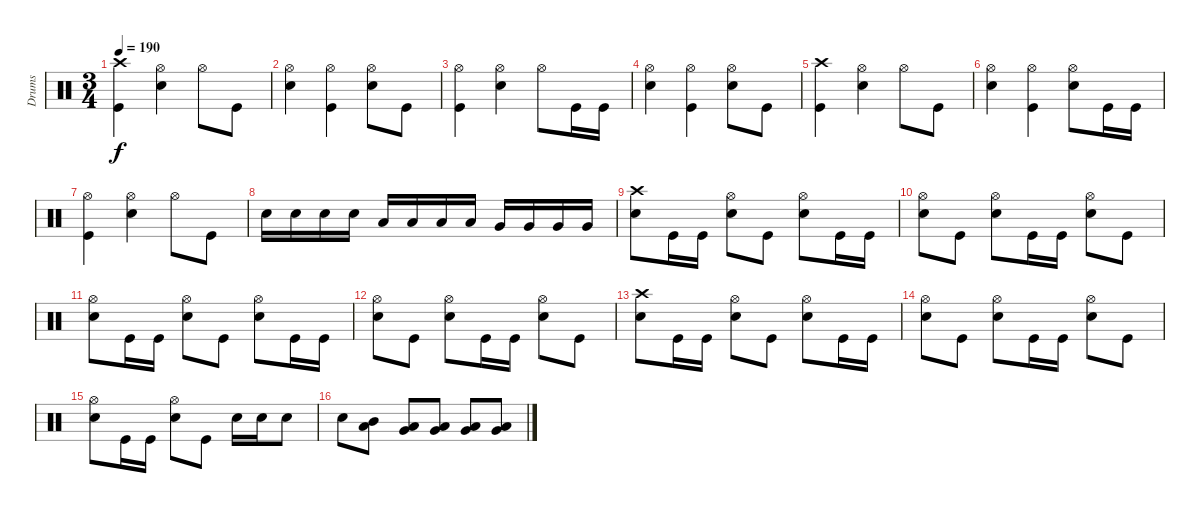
\track ("Drums" "Drums") {instrument percussion}
\staff {score}
\articulation defaults
\ts (3 4)
\tempo 190
\clef neutral
\ks c
("Kick (hit)" "Crash high (hit)").4{dy f} ("Snare (hit) 2" "Hi-Hat (open)").4 "Hi-Hat (open)".8 "Kick (hit)".8 |
("Snare (hit) 2" "Hi-Hat (open)").4 ("Kick (hit)" "Hi-Hat (open)").4 ("Snare (hit) 2" "Hi-Hat (open)").8 "Kick (hit)".8 |
("Kick (hit)" "Hi-Hat (open)").4 ("Snare (hit) 2" "Hi-Hat (open)").4 "Hi-Hat (open)".8 "Kick (hit)".16 "Kick (hit)".16 |
("Snare (hit) 2" "Hi-Hat (open)").4 ("Kick (hit)" "Hi-Hat (open)").4 ("Snare (hit) 2" "Hi-Hat (open)").8 "Kick (hit)".8 |
("Kick (hit)" "Crash high (hit)").4 ("Snare (hit) 2" "Hi-Hat (open)").4 "Hi-Hat (open)".8 "Kick (hit)".8 |
("Snare (hit) 2" "Hi-Hat (open)").4 ("Kick (hit)" "Hi-Hat (open)").4 ("Snare (hit) 2" "Hi-Hat (open)").8 "Kick (hit)".16 "Kick (hit)".16 |
("Kick (hit)" "Hi-Hat (open)").4 ("Snare (hit) 2" "Hi-Hat (open)").4 "Hi-Hat (open)".8 "Kick (hit)".8 |
"Snare (hit) 2".16 "Snare (hit) 2".16 "Snare (hit) 2".16 "Snare (hit) 2".16 "Low Tom (hit)".16 "Low Tom (hit)".16 "Low Tom (hit)".16 "Low Tom (hit)".16 "Very Low Tom (hit)".16 "Very Low Tom (hit)".16 "Very Low Tom (hit)".16 "Very Low Tom (hit)".16 |
("Snare (hit) 2" "Crash high (hit)").8 "Kick (hit)".16 "Kick (hit)".16 ("Snare (hit) 2" "Hi-Hat (open)").8 "Kick (hit)".8 ("Snare (hit) 2" "Hi-Hat (open)").8 "Kick (hit)".16 "Kick (hit)".16 |
("Snare (hit) 2" "Hi-Hat (open)").8 "Kick (hit)".8 ("Snare (hit) 2" "Hi-Hat (open)").8 "Kick (hit)".16 "Kick (hit)".16 ("Snare (hit) 2" "Hi-Hat (open)").8 "Kick (hit)".8 |
("Snare (hit) 2" "Hi-Hat (open)").8 "Kick (hit)".16 "Kick (hit)".16 ("Snare (hit) 2" "Hi-Hat (open)").8 "Kick (hit)".8 ("Snare (hit) 2" "Hi-Hat (open)").8 "Kick (hit)".16 "Kick (hit)".16 |
("Snare (hit) 2" "Hi-Hat (open)").8 "Kick (hit)".8 ("Snare (hit) 2" "Hi-Hat (open)").8 "Kick (hit)".16 "Kick (hit)".16 ("Snare (hit) 2" "Hi-Hat (open)").8 "Kick (hit)".8 |
("Snare (hit) 2" "Crash high (hit)").8 "Kick (hit)".16 "Kick (hit)".16 ("Snare (hit) 2" "Hi-Hat (open)").8 "Kick (hit)".8 ("Snare (hit) 2" "Hi-Hat (open)").8 "Kick (hit)".16 "Kick (hit)".16 |
("Snare (hit) 2" "Hi-Hat (open)").8 "Kick (hit)".8 ("Snare (hit) 2" "Hi-Hat (open)").8 "Kick (hit)".16 "Kick (hit)".16 ("Snare (hit) 2" "Hi-Hat (open)").8 "Kick (hit)".8 |
("Snare (hit) 2" "Hi-Hat (open)").8 "Kick (hit)".16 "Kick (hit)".16 ("Snare (hit) 2" "Hi-Hat (open)").8 "Kick (hit)".8 "Snare (hit) 2".16 "Snare (hit) 2".16 "Snare (hit) 2".8 |
"Snare (hit) 2".8 ("Mid Tom (hit)" "Low Tom (hit)").8 ("Low Tom (hit)" "Very Low Tom (hit)").8 ("Very Low Tom (hit)" "Low Floor Tom (hit)").8 ("Very Low Tom (hit)" "Low Floor Tom (hit)").8 ("Low Floor Tom (hit)" "Very Low Tom (hit)").8
